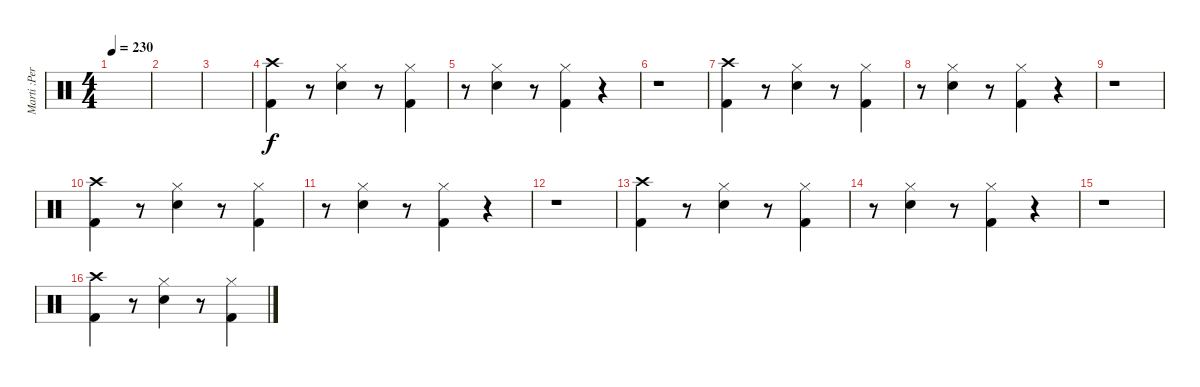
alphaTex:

\track ("Marti :Percussion" "Marti :Per") {instrument percussion}
\staff {score}
\articulation defaults
\ts (4 4)
\tempo 230
\clef neutral
\ks c
|
|
|
("Crash high (hit)" "Kick (hit) 2").4 r.8 ("Hi-Hat (closed)" "Snare (hit) 2").4 r.8 ("Hi-Hat (closed)" "Kick (hit) 2").4 |
r.8 ("Hi-Hat (closed)" "Snare (hit) 2").4 r.8 ("Hi-Hat (closed)" "Kick (hit) 2").4 r.4 |
r.1 |
("Crash high (hit)" "Kick (hit) 2").4 r.8 ("Hi-Hat (closed)" "Snare (hit) 2").4 r.8 ("Hi-Hat (closed)" "Kick (hit) 2").4 |
r.8 ("Hi-Hat (closed)" "Snare (hit) 2").4 r.8 ("Hi-Hat (closed)" "Kick (hit) 2").4 r.4 |
r.1 |
("Crash high (hit)" "Kick (hit) 2").4 r.8 ("Hi-Hat (closed)" "Snare (hit) 2").4 r.8 ("Hi-Hat (closed)" "Kick (hit) 2").4 |
r.8 ("Hi-Hat (closed)" "Snare (hit) 2").4 r.8 ("Hi-Hat (closed)" "Kick (hit) 2").4 r.4 |
r.1 |
("Crash high (hit)" "Kick (hit) 2").4 r.8 ("Hi-Hat (closed)" "Snare (hit) 2").4 r.8 ("Hi-Hat (closed)" "Kick (hit) 2").4 |
r.8 ("Hi-Hat (closed)" "Snare (hit) 2").4 r.8 ("Hi-Hat (closed)" "Kick (hit) 2").4 r.4 |
r.1 |
("Crash high (hit)" "Kick (hit) 2").4 r.8 ("Hi-Hat (closed)" "Snare (hit) 2").4 r.8 ("Hi-Hat (closed)" "Kick (hit) 2").4
